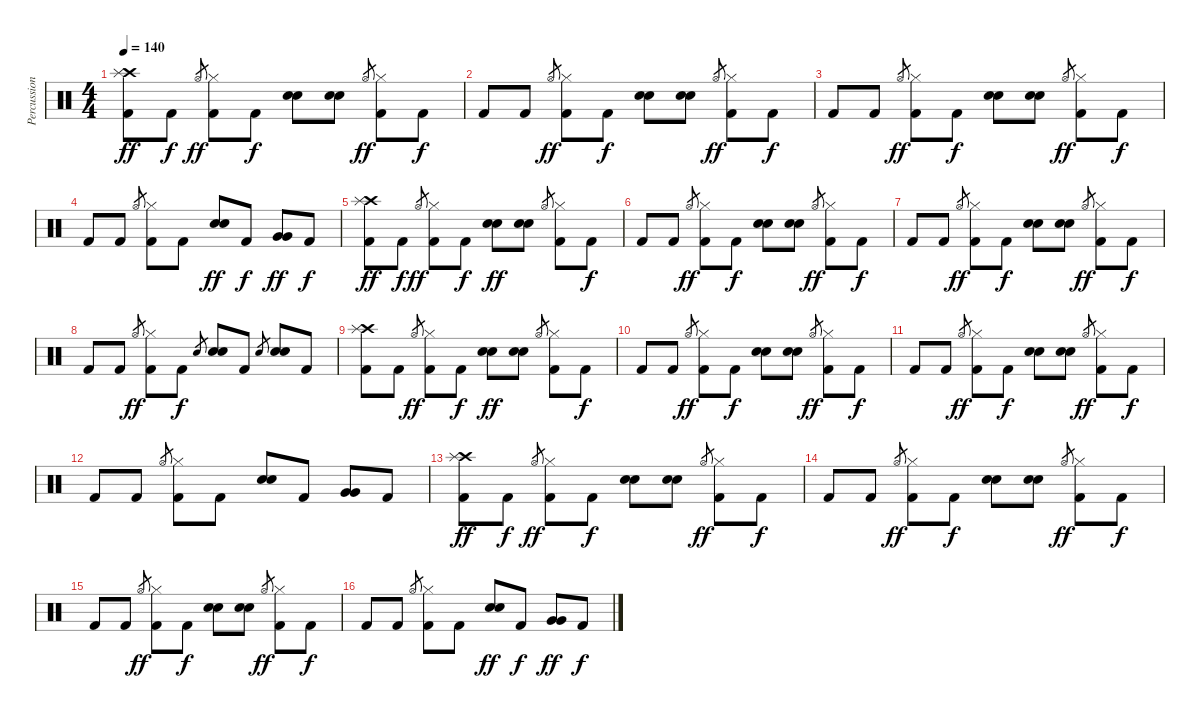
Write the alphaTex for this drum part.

\track ("Percussion" "Percussion") {instrument percussion}
\staff {score}
\articulation defaults
\ts (4 4)
\tempo 140
\clef neutral
\ks c
("Crash high (hit)" "Splash (hit)" "Kick (hit) 2").8{dy ff} "Kick (hit) 2".8{dy f} "Hi-Hat (open)".8{gr dy ff} ("Hi-Hat (closed)" "Kick (hit) 2").8 "Kick (hit) 2".8{dy f} ("Electric Snare (hit)" "Electric Snare (hit)").8 ("Electric Snare (hit)" "Electric Snare (hit)").8 "Hi-Hat (open)".8{gr dy ff} ("Hi-Hat (closed)" "Kick (hit) 2").8 "Kick (hit) 2".8{dy f} |
"Kick (hit) 2".8 "Kick (hit) 2".8 "Hi-Hat (open)".8{gr dy ff} ("Hi-Hat (closed)" "Kick (hit) 2").8 "Kick (hit) 2".8{dy f} ("Electric Snare (hit)" "Electric Snare (hit)").8 ("Electric Snare (hit)" "Electric Snare (hit)").8 "Hi-Hat (open)".8{gr dy ff} ("Hi-Hat (closed)" "Kick (hit) 2").8 "Kick (hit) 2".8{dy f} |
"Kick (hit) 2".8 "Kick (hit) 2".8 "Hi-Hat (open)".8{gr dy ff} ("Hi-Hat (closed)" "Kick (hit) 2").8 "Kick (hit) 2".8{dy f} ("Electric Snare (hit)" "Electric Snare (hit)").8 ("Electric Snare (hit)" "Electric Snare (hit)").8 "Hi-Hat (open)".8{gr dy ff} ("Hi-Hat (closed)" "Kick (hit) 2").8 "Kick (hit) 2".8{dy f} |
"Kick (hit) 2".8 "Kick (hit) 2".8 "Hi-Hat (open)".8{gr} ("Hi-Hat (closed)" "Kick (hit) 2").8 "Kick (hit) 2".8 ("Electric Snare (hit)" "Electric Snare (hit)").8{dy ff} "Kick (hit) 2".8{dy f} ("Very Low Tom (hit)" "Very Low Tom (hit)").8{dy ff} "Kick (hit) 2".8{dy f} |
("Crash high (hit)" "Splash (hit)" "Kick (hit) 2").8{dy ff} "Kick (hit) 2".8{dy f} "Hi-Hat (open)".8{gr dy ff} ("Hi-Hat (closed)" "Kick (hit) 2").8 "Kick (hit) 2".8{dy f} ("Electric Snare (hit)" "Electric Snare (hit)").8{dy ff} ("Electric Snare (hit)" "Electric Snare (hit)").8 "Hi-Hat (open)".8{gr} ("Hi-Hat (closed)" "Kick (hit) 2").8 "Kick (hit) 2".8{dy f} |
"Kick (hit) 2".8 "Kick (hit) 2".8 "Hi-Hat (open)".8{gr dy ff} ("Hi-Hat (closed)" "Kick (hit) 2").8 "Kick (hit) 2".8{dy f} ("Electric Snare (hit)" "Electric Snare (hit)").8 ("Electric Snare (hit)" "Electric Snare (hit)").8 "Hi-Hat (open)".8{gr dy ff} ("Hi-Hat (closed)" "Kick (hit) 2").8 "Kick (hit) 2".8{dy f} |
"Kick (hit) 2".8 "Kick (hit) 2".8 "Hi-Hat (open)".8{gr dy ff} ("Hi-Hat (closed)" "Kick (hit) 2").8 "Kick (hit) 2".8{dy f} ("Electric Snare (hit)" "Electric Snare (hit)").8 ("Electric Snare (hit)" "Electric Snare (hit)").8 "Hi-Hat (open)".8{gr dy ff} ("Hi-Hat (closed)" "Kick (hit) 2").8 "Kick (hit) 2".8{dy f} |
"Kick (hit) 2".8 "Kick (hit) 2".8 "Hi-Hat (open)".8{gr dy ff} ("Hi-Hat (closed)" "Kick (hit) 2").8 "Kick (hit) 2".8{dy f} "Electric Snare (hit)".8{gr} ("Electric Snare (hit)" "Electric Snare (hit)").8 "Kick (hit) 2".8 "Electric Snare (hit)".8{gr} ("Electric Snare (hit)" "Electric Snare (hit)").8 "Kick (hit) 2".8 |
("Crash high (hit)" "Splash (hit)" "Kick (hit) 2").8 "Kick (hit) 2".8 "Hi-Hat (open)".8{gr dy ff} ("Hi-Hat (closed)" "Kick (hit) 2").8 "Kick (hit) 2".8{dy f} ("Electric Snare (hit)" "Electric Snare (hit)").8{dy ff} ("Electric Snare (hit)" "Electric Snare (hit)").8 "Hi-Hat (open)".8{gr} ("Hi-Hat (closed)" "Kick (hit) 2").8 "Kick (hit) 2".8{dy f} |
"Kick (hit) 2".8 "Kick (hit) 2".8 "Hi-Hat (open)".8{gr dy ff} ("Hi-Hat (closed)" "Kick (hit) 2").8 "Kick (hit) 2".8{dy f} ("Electric Snare (hit)" "Electric Snare (hit)").8 ("Electric Snare (hit)" "Electric Snare (hit)").8 "Hi-Hat (open)".8{gr dy ff} ("Hi-Hat (closed)" "Kick (hit) 2").8 "Kick (hit) 2".8{dy f} |
"Kick (hit) 2".8 "Kick (hit) 2".8 "Hi-Hat (open)".8{gr dy ff} ("Hi-Hat (closed)" "Kick (hit) 2").8 "Kick (hit) 2".8{dy f} ("Electric Snare (hit)" "Electric Snare (hit)").8 ("Electric Snare (hit)" "Electric Snare (hit)").8 "Hi-Hat (open)".8{gr dy ff} ("Hi-Hat (closed)" "Kick (hit) 2").8 "Kick (hit) 2".8{dy f} |
"Kick (hit) 2".8 "Kick (hit) 2".8 "Hi-Hat (open)".8{gr} ("Hi-Hat (closed)" "Kick (hit) 2").8 "Kick (hit) 2".8 ("Electric Snare (hit)" "Electric Snare (hit)").8 "Kick (hit) 2".8 ("Very Low Tom (hit)" "Very Low Tom (hit)").8 "Kick (hit) 2".8 |
("Crash high (hit)" "Splash (hit)" "Kick (hit) 2").8{dy ff} "Kick (hit) 2".8{dy f} "Hi-Hat (open)".8{gr dy ff} ("Hi-Hat (closed)" "Kick (hit) 2").8 "Kick (hit) 2".8{dy f} ("Electric Snare (hit)" "Electric Snare (hit)").8 ("Electric Snare (hit)" "Electric Snare (hit)").8 "Hi-Hat (open)".8{gr dy ff} ("Hi-Hat (closed)" "Kick (hit) 2").8 "Kick (hit) 2".8{dy f} |
"Kick (hit) 2".8 "Kick (hit) 2".8 "Hi-Hat (open)".8{gr dy ff} ("Hi-Hat (closed)" "Kick (hit) 2").8 "Kick (hit) 2".8{dy f} ("Electric Snare (hit)" "Electric Snare (hit)").8 ("Electric Snare (hit)" "Electric Snare (hit)").8 "Hi-Hat (open)".8{gr dy ff} ("Hi-Hat (closed)" "Kick (hit) 2").8 "Kick (hit) 2".8{dy f} |
"Kick (hit) 2".8 "Kick (hit) 2".8 "Hi-Hat (open)".8{gr dy ff} ("Hi-Hat (closed)" "Kick (hit) 2").8 "Kick (hit) 2".8{dy f} ("Electric Snare (hit)" "Electric Snare (hit)").8 ("Electric Snare (hit)" "Electric Snare (hit)").8 "Hi-Hat (open)".8{gr dy ff} ("Hi-Hat (closed)" "Kick (hit) 2").8 "Kick (hit) 2".8{dy f} |
"Kick (hit) 2".8 "Kick (hit) 2".8 "Hi-Hat (open)".8{gr} ("Hi-Hat (closed)" "Kick (hit) 2").8 "Kick (hit) 2".8 ("Electric Snare (hit)" "Electric Snare (hit)").8{dy ff} "Kick (hit) 2".8{dy f} ("Very Low Tom (hit)" "Very Low Tom (hit)").8{dy ff} "Kick (hit) 2".8{dy f}
